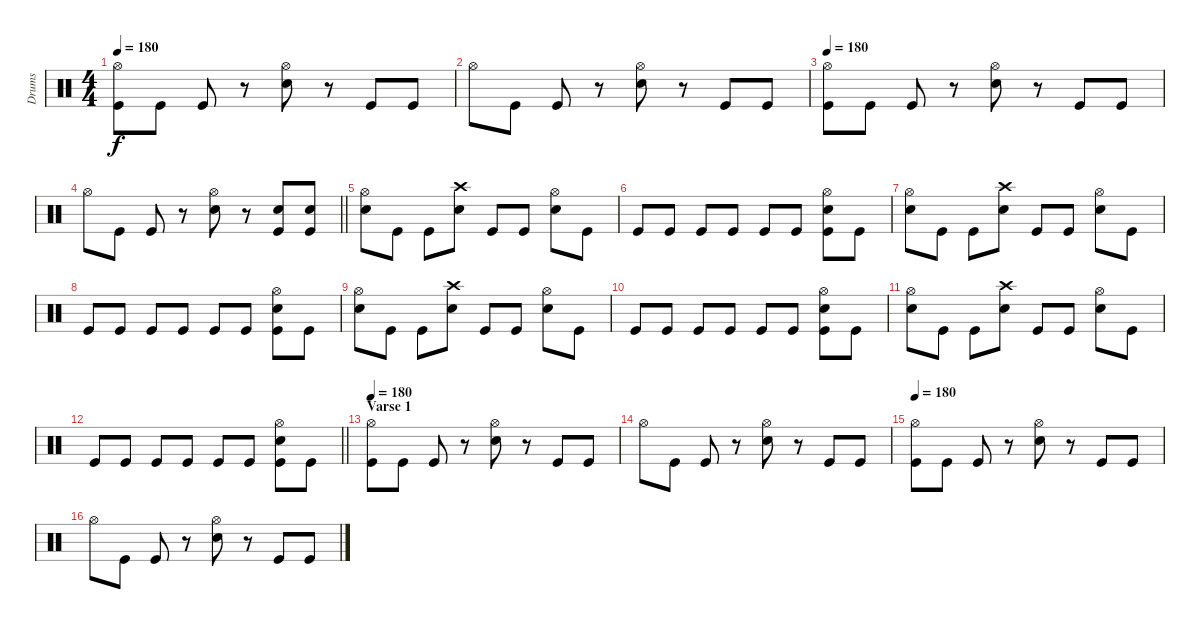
\track ("Drums" "Drums") {instrument percussion}
\staff {score}
\articulation defaults
\ts (4 4)
\tempo 180
\clef neutral
\ks c
("Hi-Hat (open)" "Kick (hit)").8{dy f} "Kick (hit)".8 "Kick (hit)".8 r.8 ("Hi-Hat (open)" "Electric Snare (hit)").8 r.8 "Kick (hit)".8 "Kick (hit)".8 |
"Hi-Hat (open)".8 "Kick (hit)".8 "Kick (hit)".8 r.8 ("Hi-Hat (open)" "Electric Snare (hit)").8 r.8 "Kick (hit)".8 "Kick (hit)".8 |
\tempo 180
("Hi-Hat (open)" "Kick (hit)").8 "Kick (hit)".8 "Kick (hit)".8 r.8 ("Hi-Hat (open)" "Electric Snare (hit)").8 r.8 "Kick (hit)".8 "Kick (hit)".8 |
\barLineRight lightlight "Hi-Hat (open)".8 "Kick (hit)".8 "Kick (hit)".8
r.8 ("Hi-Hat (open)" "Electric Snare (hit)").8 r.8 ("Electric Snare (hit)" "Kick (hit)").8 ("Electric Snare (hit)" "Kick (hit)").8 |
\section ("" "")
("Hi-Hat (open)" "Electric Snare (hit)").8 "Kick (hit)".8 "Kick (hit)".8 ("Crash high (hit)" "Electric Snare (hit)").8 "Kick (hit)".8 "Kick (hit)".8 ("Hi-Hat (open)" "Electric Snare (hit)").8 "Kick (hit)".8 |
"Kick (hit)".8 "Kick (hit)".8 "Kick (hit)".8 "Kick (hit)".8 "Kick (hit)".8 "Kick (hit)".8 ("Hi-Hat (open)" "Electric Snare (hit)" "Kick (hit)").8 "Kick (hit)".8 |
("Hi-Hat (open)" "Electric Snare (hit)").8 "Kick (hit)".8 "Kick (hit)".8 ("Crash high (hit)" "Electric Snare (hit)").8 "Kick (hit)".8 "Kick (hit)".8 ("Hi-Hat (open)" "Electric Snare (hit)").8 "Kick (hit)".8 |
"Kick (hit)".8 "Kick (hit)".8 "Kick (hit)".8 "Kick (hit)".8 "Kick (hit)".8 "Kick (hit)".8 ("Hi-Hat (open)" "Electric Snare (hit)" "Kick (hit)").8 "Kick (hit)".8 |
("Hi-Hat (open)" "Electric Snare (hit)").8 "Kick (hit)".8 "Kick (hit)".8 ("Crash high (hit)" "Electric Snare (hit)").8 "Kick (hit)".8 "Kick (hit)".8 ("Hi-Hat (open)" "Electric Snare (hit)").8 "Kick (hit)".8 |
"Kick (hit)".8 "Kick (hit)".8 "Kick (hit)".8 "Kick (hit)".8 "Kick (hit)".8 "Kick (hit)".8 ("Hi-Hat (open)" "Electric Snare (hit)" "Kick (hit)").8 "Kick (hit)".8 |
("Hi-Hat (open)" "Electric Snare (hit)").8 "Kick (hit)".8 "Kick (hit)".8 ("Crash high (hit)" "Electric Snare (hit)").8 "Kick (hit)".8 "Kick (hit)".8 ("Hi-Hat (open)" "Electric Snare (hit)").8 "Kick (hit)".8 |
\barLineRight lightlight "Kick (hit)".8 "Kick (hit)".8 "Kick (hit)".8 "Kick (hit)".8 "Kick (hit)".8 "Kick (hit)".8
("Hi-Hat (open)" "Electric Snare (hit)" "Kick (hit)").8 "Kick (hit)".8 |
\section ("" "Varse 1")
\tempo 180
("Hi-Hat (open)" "Kick (hit)").8 "Kick (hit)".8 "Kick (hit)".8 r.8 ("Hi-Hat (open)" "Electric Snare (hit)").8 r.8 "Kick (hit)".8 "Kick (hit)".8 |
"Hi-Hat (open)".8 "Kick (hit)".8 "Kick (hit)".8 r.8 ("Hi-Hat (open)" "Electric Snare (hit)").8 r.8 "Kick (hit)".8 "Kick (hit)".8 |
\tempo 180
("Hi-Hat (open)" "Kick (hit)").8 "Kick (hit)".8 "Kick (hit)".8 r.8 ("Hi-Hat (open)" "Electric Snare (hit)").8 r.8 "Kick (hit)".8 "Kick (hit)".8 |
"Hi-Hat (open)".8 "Kick (hit)".8 "Kick (hit)".8 r.8 ("Hi-Hat (open)" "Electric Snare (hit)").8 r.8 "Kick (hit)".8 "Kick (hit)".8
